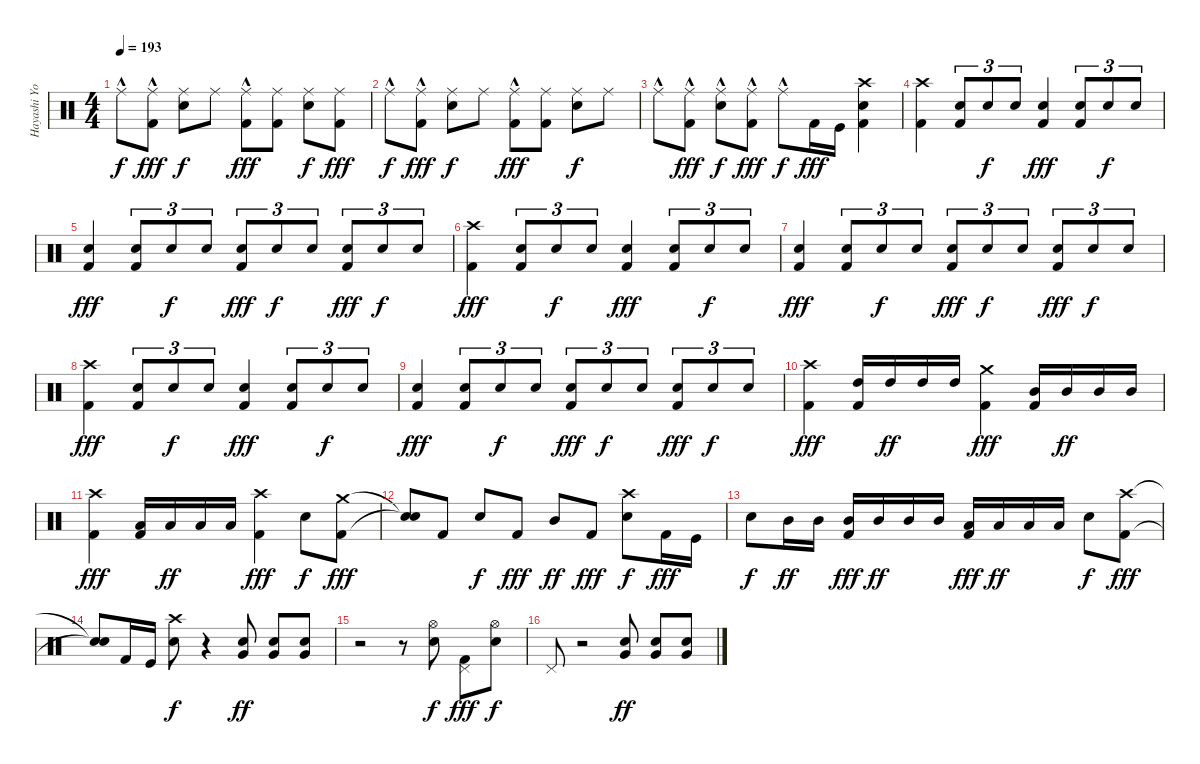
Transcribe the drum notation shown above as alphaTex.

\track ("Hayashi Yoshiki(Yoshiki)" "Hayashi Yo") {instrument percussion}
\staff {score}
\articulation defaults
\ts (4 4)
\tempo 193
\clef neutral
\ks c "Ride (middle)"{hac}.8{dy f}
("Ride (middle)"{hac} "Kick (hit) 2").8{dy fff} ("Ride (middle)" "Electric Snare (hit)").8{dy f} "Ride (middle)".8 ("Ride (middle)"{hac} "Kick (hit) 2").8{dy fff} ("Ride (middle)" "Kick (hit) 2").8 ("Ride (middle)" "Electric Snare (hit)").8{dy f} ("Ride (middle)" "Kick (hit) 2").8{dy fff} |
"Ride (middle)"{hac}.8{dy f} ("Ride (middle)"{hac} "Kick (hit) 2").8{dy fff} ("Ride (middle)" "Electric Snare (hit)").8{dy f} "Ride (middle)".8 ("Ride (middle)"{hac} "Kick (hit) 2").8{dy fff} ("Ride (middle)" "Kick (hit) 2").8 ("Ride (middle)" "Electric Snare (hit)").8{dy f} "Ride (middle)".8 |
"Ride (middle)"{hac}.8 ("Ride (middle)"{hac} "Kick (hit) 2").8{dy fff} ("Ride (middle)"{hac} "Electric Snare (hit)").8{dy f} ("Ride (middle)"{hac} "Kick (hit) 2").8{dy fff} "Ride (middle)"{hac}.8{dy f} "Kick (hit) 2".16{dy fff} "Kick (hit)".16 ("Crash high (hit)" "Electric Snare (hit)" "Kick (hit) 2").4 |
("Crash high (hit)" "Kick (hit) 2").4 ("Electric Snare (hit)" "Kick (hit) 2").8{tu (3 2)} "Electric Snare (hit)".8{tu (3 2) dy f} "Electric Snare (hit)".8{tu (3 2)} ("Electric Snare (hit)" "Kick (hit) 2").4{dy fff} ("Electric Snare (hit)" "Kick (hit) 2").8{tu (3 2)} "Electric Snare (hit)".8{tu (3 2) dy f} "Electric Snare (hit)".8{tu (3 2)} |
("Electric Snare (hit)" "Kick (hit) 2").4{dy fff} ("Electric Snare (hit)" "Kick (hit) 2").8{tu (3 2)} "Electric Snare (hit)".8{tu (3 2) dy f} "Electric Snare (hit)".8{tu (3 2)} ("Electric Snare (hit)" "Kick (hit) 2").8{tu (3 2) dy fff} "Electric Snare (hit)".8{tu (3 2) dy f} "Electric Snare (hit)".8{tu (3 2)} ("Electric Snare (hit)" "Kick (hit) 2").8{tu (3 2) dy fff} "Electric Snare (hit)".8{tu (3 2) dy f} "Electric Snare (hit)".8{tu (3 2)} |
("Crash high (hit)" "Kick (hit) 2").4{dy fff} ("Electric Snare (hit)" "Kick (hit) 2").8{tu (3 2)} "Electric Snare (hit)".8{tu (3 2) dy f} "Electric Snare (hit)".8{tu (3 2)} ("Electric Snare (hit)" "Kick (hit) 2").4{dy fff} ("Electric Snare (hit)" "Kick (hit) 2").8{tu (3 2)} "Electric Snare (hit)".8{tu (3 2) dy f} "Electric Snare (hit)".8{tu (3 2)} |
("Electric Snare (hit)" "Kick (hit) 2").4{dy fff} ("Electric Snare (hit)" "Kick (hit) 2").8{tu (3 2)} "Electric Snare (hit)".8{tu (3 2) dy f} "Electric Snare (hit)".8{tu (3 2)} ("Electric Snare (hit)" "Kick (hit) 2").8{tu (3 2) dy fff} "Electric Snare (hit)".8{tu (3 2) dy f} "Electric Snare (hit)".8{tu (3 2)} ("Electric Snare (hit)" "Kick (hit) 2").8{tu (3 2) dy fff} "Electric Snare (hit)".8{tu (3 2) dy f} "Electric Snare (hit)".8{tu (3 2)} |
("Crash high (hit)" "Kick (hit) 2").4{dy fff} ("Electric Snare (hit)" "Kick (hit) 2").8{tu (3 2)} "Electric Snare (hit)".8{tu (3 2) dy f} "Electric Snare (hit)".8{tu (3 2)} ("Electric Snare (hit)" "Kick (hit) 2").4{dy fff} ("Electric Snare (hit)" "Kick (hit) 2").8{tu (3 2)} "Electric Snare (hit)".8{tu (3 2) dy f} "Electric Snare (hit)".8{tu (3 2)} |
("Electric Snare (hit)" "Kick (hit) 2").4{dy fff} ("Electric Snare (hit)" "Kick (hit) 2").8{tu (3 2)} "Electric Snare (hit)".8{tu (3 2) dy f} "Electric Snare (hit)".8{tu (3 2)} ("Electric Snare (hit)" "Kick (hit) 2").8{tu (3 2) dy fff} "Electric Snare (hit)".8{tu (3 2) dy f} "Electric Snare (hit)".8{tu (3 2)} ("Electric Snare (hit)" "Kick (hit) 2").8{tu (3 2) dy fff} "Electric Snare (hit)".8{tu (3 2) dy f} "Electric Snare (hit)".8{tu (3 2)} |
("Crash high (hit)" "Kick (hit) 2").4{dy fff} ("High Tom (hit)" "Kick (hit) 2").16 "High Tom (hit)".16{dy ff} "High Tom (hit)".16 "High Tom (hit)".16 ("Crash medium (hit)" "Kick (hit) 2").4{dy fff} ("Mid Tom (hit)" "Kick (hit) 2").16 "Mid Tom (hit)".16{dy ff} "Mid Tom (hit)".16 "Mid Tom (hit)".16 |
("Crash high (hit)" "Kick (hit) 2").4{dy fff} ("Low Tom (hit)" "Kick (hit) 2").16 "Low Tom (hit)".16{dy ff} "Low Tom (hit)".16 "Low Tom (hit)".16 ("Crash high (hit)" "Kick (hit) 2").4{dy fff} "Electric Snare (hit)".8{dy f} ("Crash medium (hit)" "Kick (hit) 2").8{dy fff} |
("Snare (hit)"{t} "Snare (hit)"{t}).8 "Kick (hit) 2".8 "Electric Snare (hit)".8{dy f} "Kick (hit) 2".8{dy fff} "Mid Tom (hit)".8{dy ff} "Kick (hit) 2".8{dy fff} ("Crash high (hit)" "Electric Snare (hit)").8{dy f} "Kick (hit) 2".16{dy fff} "Kick (hit)".16 |
"Electric Snare (hit)".8{dy f} "Mid Tom (hit)".16{dy ff} "Mid Tom (hit)".16 ("Mid Tom (hit)" "Kick (hit) 2").16{dy fff} "Mid Tom (hit)".16{dy ff} "Mid Tom (hit)".16 "Mid Tom (hit)".16 ("Low Tom (hit)" "Kick (hit) 2").16{dy fff} "Low Tom (hit)".16{dy ff} "Low Tom (hit)".16 "Low Tom (hit)".16 "Electric Snare (hit)".8{dy f} ("Crash high (hit)" "Kick (hit) 2").8{dy fff} |
("Snare (hit)"{t} "Snare (hit)"{t}).8 "Kick (hit) 2".16 "Kick (hit)".16 ("Crash high (hit)" "Electric Snare (hit)").8{dy f} r.4 ("Very Low Tom (hit)" "Electric Snare (hit)").8{dy ff} ("Very Low Tom (hit)" "Electric Snare (hit)").8 ("Very Low Tom (hit)" "Electric Snare (hit)").8 |
r.2 r.8 ("Hi-Hat (open)" "Electric Snare (hit)").8{dy f} ("Pedal Hi-Hat (hit)" "Kick (hit) 2").8{dy fff} ("Hi-Hat (open)" "Electric Snare (hit)").8{dy f} |
"Pedal Hi-Hat (hit)".8 r.2 ("Very Low Tom (hit)" "Electric Snare (hit)").8{dy ff} ("Very Low Tom (hit)" "Electric Snare (hit)").8 ("Very Low Tom (hit)" "Electric Snare (hit)").8
